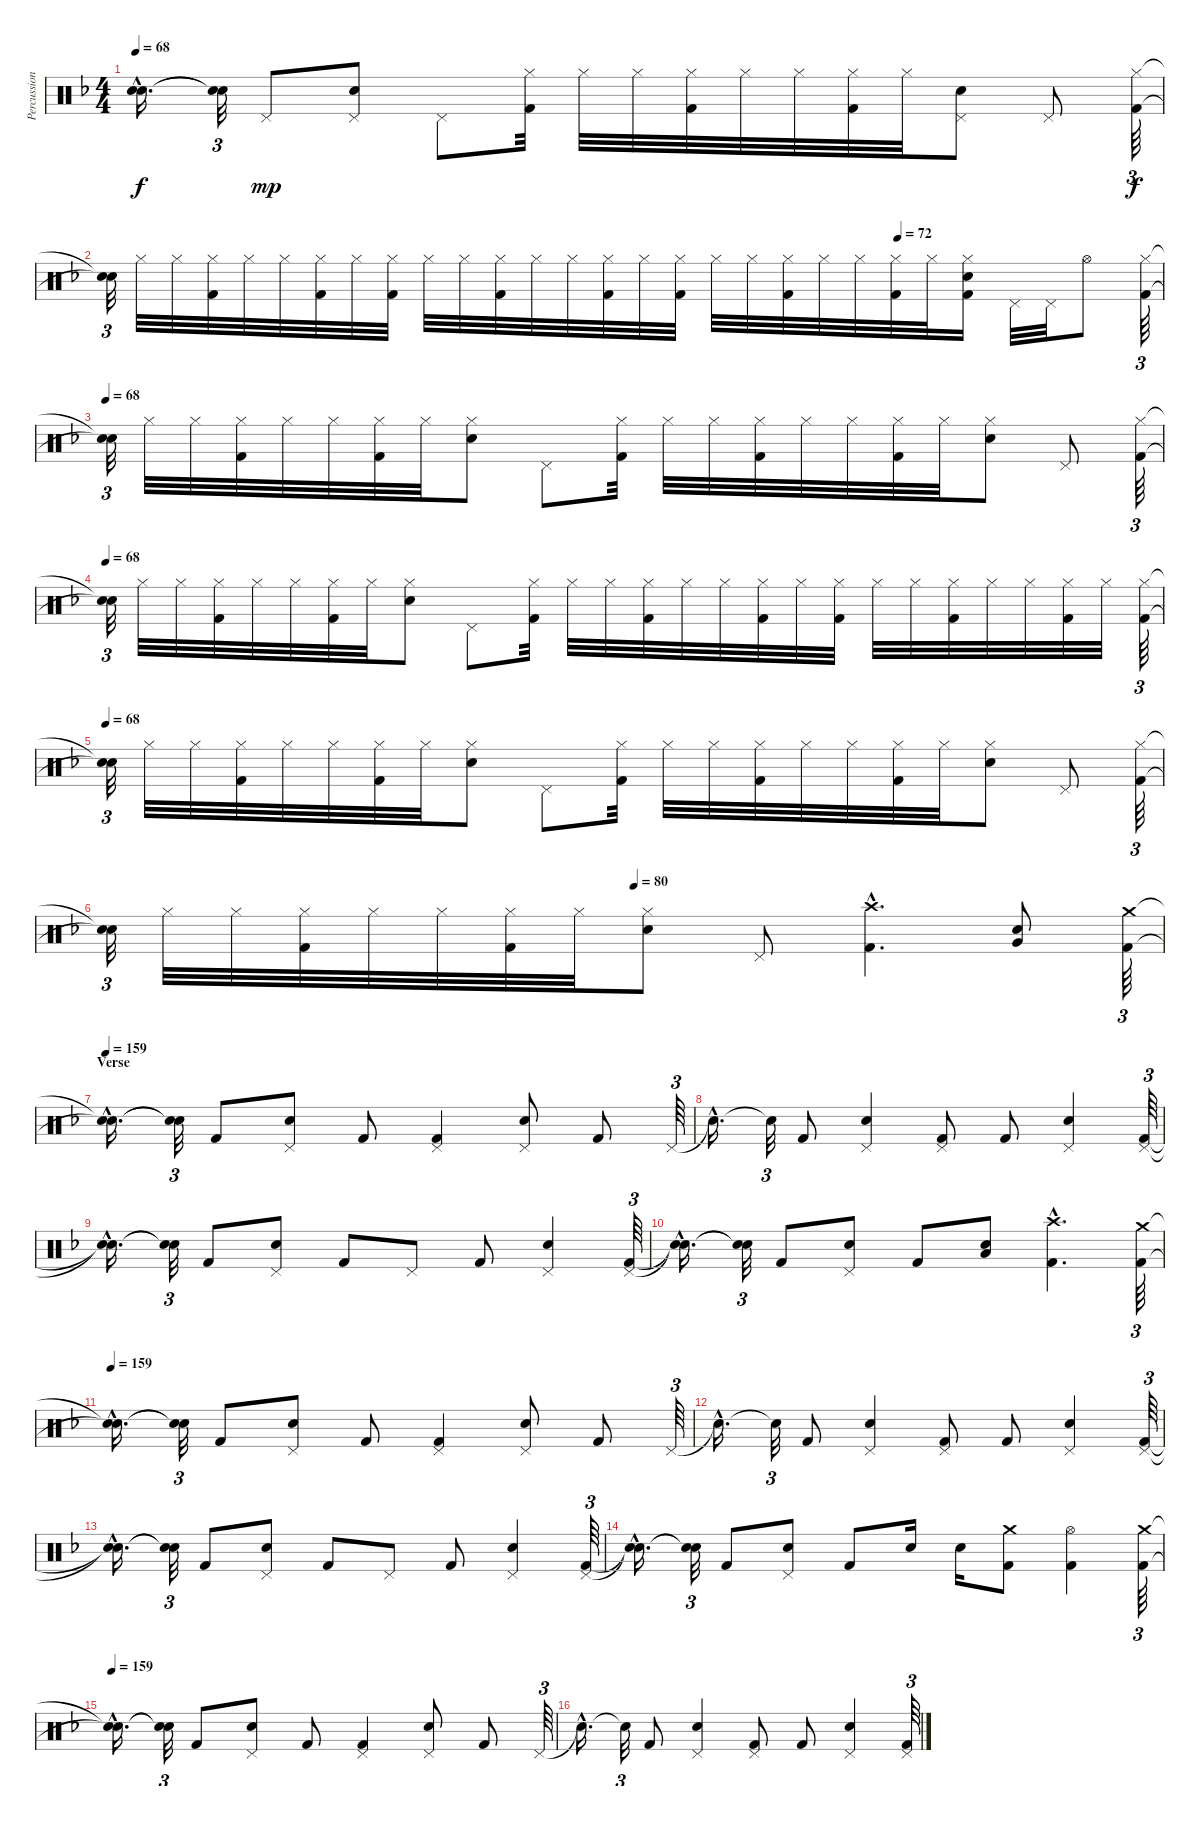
\track ("Percussion" "Percussion") {instrument percussion}
\staff {score}
\articulation defaults
\ts (4 4)
\tempo 68
\clef neutral
\ks f
("Snare (hit)"{hac t} "Snare (hit)"{hac t}).16{d dy f} ("Snare (hit)"{t} "Snare (hit)"{t}).32{tu (3 2)} "Pedal Hi-Hat (hit)".8{dy mp} ("Pedal Hi-Hat (hit)" "Electric Snare (hit)").8 "Pedal Hi-Hat (hit)".8 ("Hi-Hat (closed)" "Kick (hit) 2").32 "Hi-Hat (closed)".32 "Hi-Hat (closed)".32 ("Hi-Hat (closed)" "Kick (hit) 2").32 "Hi-Hat (closed)".32 "Hi-Hat (closed)".32 ("Hi-Hat (closed)" "Kick (hit) 2").32 "Hi-Hat (closed)".32 ("Pedal Hi-Hat (hit)" "Electric Snare (hit)").8 "Pedal Hi-Hat (hit)".8 ("Hi-Hat (closed)" "Kick (hit) 2").64{tu (3 2) dy f} |
\tempo (72 0.75)
("Snare (hit)"{t} "Snare (hit)"{t}).32{tu (3 2)} "Hi-Hat (closed)".32 "Hi-Hat (closed)".32 ("Hi-Hat (closed)" "Kick (hit) 2").32 "Hi-Hat (closed)".32 "Hi-Hat (closed)".32 ("Hi-Hat (closed)" "Kick (hit) 2").32 "Hi-Hat (closed)".32 ("Hi-Hat (closed)" "Kick (hit) 2").32 "Hi-Hat (closed)".32 "Hi-Hat (closed)".32 ("Hi-Hat (closed)" "Kick (hit) 2").32 "Hi-Hat (closed)".32 "Hi-Hat (closed)".32 ("Hi-Hat (closed)" "Kick (hit) 2").32 "Hi-Hat (closed)".32 ("Hi-Hat (closed)" "Kick (hit) 2").32 "Hi-Hat (closed)".32 "Hi-Hat (closed)".32 ("Hi-Hat (closed)" "Kick (hit) 2").32 "Hi-Hat (closed)".32 "Hi-Hat (closed)".32 ("Hi-Hat (closed)" "Kick (hit) 2").32 "Hi-Hat (closed)".32 ("Hi-Hat (closed)" "Electric Snare (hit)" "Kick (hit) 2").16 "Pedal Hi-Hat (hit)".32 "Pedal Hi-Hat (hit)".32 "Hi-Hat (open)".8 ("Hi-Hat (closed)" "Kick (hit) 2").64{tu (3 2)} |
\tempo 68
("Snare (hit)"{t} "Snare (hit)"{t}).32{tu (3 2)} "Hi-Hat (closed)".32 "Hi-Hat (closed)".32 ("Hi-Hat (closed)" "Kick (hit) 2").32 "Hi-Hat (closed)".32 "Hi-Hat (closed)".32 ("Hi-Hat (closed)" "Kick (hit) 2").32 "Hi-Hat (closed)".32 ("Hi-Hat (closed)" "Electric Snare (hit)").8 "Pedal Hi-Hat (hit)".8 ("Hi-Hat (closed)" "Kick (hit) 2").32 "Hi-Hat (closed)".32 "Hi-Hat (closed)".32 ("Hi-Hat (closed)" "Kick (hit) 2").32 "Hi-Hat (closed)".32 "Hi-Hat (closed)".32 ("Hi-Hat (closed)" "Kick (hit) 2").32 "Hi-Hat (closed)".32 ("Hi-Hat (closed)" "Electric Snare (hit)").8 "Pedal Hi-Hat (hit)".8 ("Hi-Hat (closed)" "Kick (hit) 2").64{tu (3 2)} |
\tempo 68
("Snare (hit)"{t} "Snare (hit)"{t}).32{tu (3 2)} "Hi-Hat (closed)".32 "Hi-Hat (closed)".32 ("Hi-Hat (closed)" "Kick (hit) 2").32 "Hi-Hat (closed)".32 "Hi-Hat (closed)".32 ("Hi-Hat (closed)" "Kick (hit) 2").32 "Hi-Hat (closed)".32 ("Hi-Hat (closed)" "Electric Snare (hit)").8 "Pedal Hi-Hat (hit)".8 ("Hi-Hat (closed)" "Kick (hit) 2").32 "Hi-Hat (closed)".32 "Hi-Hat (closed)".32 ("Hi-Hat (closed)" "Kick (hit) 2").32 "Hi-Hat (closed)".32 "Hi-Hat (closed)".32 ("Hi-Hat (closed)" "Kick (hit) 2").32 "Hi-Hat (closed)".32 ("Hi-Hat (closed)" "Kick (hit) 2").32 "Hi-Hat (closed)".32 "Hi-Hat (closed)".32 ("Hi-Hat (closed)" "Kick (hit) 2").32 "Hi-Hat (closed)".32 "Hi-Hat (closed)".32 ("Hi-Hat (closed)" "Kick (hit) 2").32 "Hi-Hat (closed)".32 ("Hi-Hat (closed)" "Kick (hit) 2").64{tu (3 2)} |
\tempo 68
("Snare (hit)"{t} "Snare (hit)"{t}).32{tu (3 2)} "Hi-Hat (closed)".32 "Hi-Hat (closed)".32 ("Hi-Hat (closed)" "Kick (hit) 2").32 "Hi-Hat (closed)".32 "Hi-Hat (closed)".32 ("Hi-Hat (closed)" "Kick (hit) 2").32 "Hi-Hat (closed)".32 ("Hi-Hat (closed)" "Electric Snare (hit)").8 "Pedal Hi-Hat (hit)".8 ("Hi-Hat (closed)" "Kick (hit) 2").32 "Hi-Hat (closed)".32 "Hi-Hat (closed)".32 ("Hi-Hat (closed)" "Kick (hit) 2").32 "Hi-Hat (closed)".32 "Hi-Hat (closed)".32 ("Hi-Hat (closed)" "Kick (hit) 2").32 "Hi-Hat (closed)".32 ("Hi-Hat (closed)" "Electric Snare (hit)").8 "Pedal Hi-Hat (hit)".8 ("Hi-Hat (closed)" "Kick (hit) 2").64{tu (3 2)} |
\tempo (80 0.5)
("Snare (hit)"{t} "Snare (hit)"{t}).32{tu (3 2)} "Hi-Hat (closed)".32 "Hi-Hat (closed)".32 ("Hi-Hat (closed)" "Kick (hit) 2").32 "Hi-Hat (closed)".32 "Hi-Hat (closed)".32 ("Hi-Hat (closed)" "Kick (hit) 2").32 "Hi-Hat (closed)".32 ("Hi-Hat (closed)" "Electric Snare (hit)").8 "Pedal Hi-Hat (hit)".8 ("Crash high (hit)"{hac} "Kick (hit) 2"{hac}).4{d} ("Very Low Tom (hit)" "Electric Snare (hit)").8 ("Crash medium (hit)" "Kick (hit) 2").64{tu (3 2)} |
\section ("" "Verse")
\tempo 159
("Snare (hit)"{hac t} "Snare (hit)"{hac t}).16{d} ("Snare (hit)"{t} "Snare (hit)"{t}).32{tu (3 2)} "Kick (hit) 2".8 ("Pedal Hi-Hat (hit)" "Electric Snare (hit)").8 "Kick (hit) 2".8 ("Pedal Hi-Hat (hit)" "Kick (hit) 2").4 ("Pedal Hi-Hat (hit)" "Electric Snare (hit)").8 "Kick (hit) 2".8 "Pedal Hi-Hat (hit)".64{tu (3 2)} |
"Snare (hit)"{hac t}.16{d} "Snare (hit)"{t}.32{tu (3 2)} "Kick (hit) 2".8 ("Pedal Hi-Hat (hit)" "Electric Snare (hit)").4 ("Pedal Hi-Hat (hit)" "Kick (hit) 2").8 "Kick (hit) 2".8 ("Pedal Hi-Hat (hit)" "Electric Snare (hit)").4 ("Pedal Hi-Hat (hit)" "Kick (hit) 2").64{tu (3 2)} |
("Snare (hit)"{hac t} "Snare (hit)"{hac t}).16{d} ("Snare (hit)"{t} "Snare (hit)"{t}).32{tu (3 2)} "Kick (hit) 2".8 ("Pedal Hi-Hat (hit)" "Electric Snare (hit)").8 "Kick (hit) 2".8 "Pedal Hi-Hat (hit)".8 "Kick (hit) 2".8 ("Pedal Hi-Hat (hit)" "Electric Snare (hit)").4 ("Pedal Hi-Hat (hit)" "Kick (hit) 2").64{tu (3 2)} |
("Snare (hit)"{hac t} "Snare (hit)"{hac t}).16{d} ("Snare (hit)"{t} "Snare (hit)"{t}).32{tu (3 2)} "Kick (hit) 2".8 ("Pedal Hi-Hat (hit)" "Electric Snare (hit)").8 "Kick (hit) 2".8 ("Low Tom (hit)" "Electric Snare (hit)").8 ("Crash high (hit)"{hac} "Kick (hit) 2"{hac}).4{d} ("Crash medium (hit)" "Kick (hit) 2").64{tu (3 2)} |
\tempo 159
("Snare (hit)"{hac t} "Snare (hit)"{hac t}).16{d} ("Snare (hit)"{t} "Snare (hit)"{t}).32{tu (3 2)} "Kick (hit) 2".8 ("Pedal Hi-Hat (hit)" "Electric Snare (hit)").8 "Kick (hit) 2".8 ("Pedal Hi-Hat (hit)" "Kick (hit) 2").4 ("Pedal Hi-Hat (hit)" "Electric Snare (hit)").8 "Kick (hit) 2".8 "Pedal Hi-Hat (hit)".64{tu (3 2)} |
"Snare (hit)"{hac t}.16{d} "Snare (hit)"{t}.32{tu (3 2)} "Kick (hit) 2".8 ("Pedal Hi-Hat (hit)" "Electric Snare (hit)").4 ("Pedal Hi-Hat (hit)" "Kick (hit) 2").8 "Kick (hit) 2".8 ("Pedal Hi-Hat (hit)" "Electric Snare (hit)").4 ("Pedal Hi-Hat (hit)" "Kick (hit) 2").64{tu (3 2)} |
("Snare (hit)"{hac t} "Snare (hit)"{hac t}).16{d} ("Snare (hit)"{t} "Snare (hit)"{t}).32{tu (3 2)} "Kick (hit) 2".8 ("Pedal Hi-Hat (hit)" "Electric Snare (hit)").8 "Kick (hit) 2".8 "Pedal Hi-Hat (hit)".8 "Kick (hit) 2".8 ("Pedal Hi-Hat (hit)" "Electric Snare (hit)").4 ("Pedal Hi-Hat (hit)" "Kick (hit) 2").64{tu (3 2)} |
("Snare (hit)"{hac t} "Snare (hit)"{hac t}).16{d} ("Snare (hit)"{t} "Snare (hit)"{t}).32{tu (3 2)} "Kick (hit) 2".8 ("Pedal Hi-Hat (hit)" "Electric Snare (hit)").8 "Kick (hit) 2".8 "Electric Snare (hit)".16 "Electric Snare (hit)".16 ("Crash medium (hit)" "Kick (hit) 2").8 ("Hi-Hat (open)" "Kick (hit) 2").4 ("Crash medium (hit)" "Kick (hit) 2").64{tu (3 2)} |
\tempo 159
("Snare (hit)"{hac t} "Snare (hit)"{hac t}).16{d} ("Snare (hit)"{t} "Snare (hit)"{t}).32{tu (3 2)} "Kick (hit) 2".8 ("Pedal Hi-Hat (hit)" "Electric Snare (hit)").8 "Kick (hit) 2".8 ("Pedal Hi-Hat (hit)" "Kick (hit) 2").4 ("Pedal Hi-Hat (hit)" "Electric Snare (hit)").8 "Kick (hit) 2".8 "Pedal Hi-Hat (hit)".64{tu (3 2)} |
"Snare (hit)"{hac t}.16{d} "Snare (hit)"{t}.32{tu (3 2)} "Kick (hit) 2".8 ("Pedal Hi-Hat (hit)" "Electric Snare (hit)").4 ("Pedal Hi-Hat (hit)" "Kick (hit) 2").8 "Kick (hit) 2".8 ("Pedal Hi-Hat (hit)" "Electric Snare (hit)").4 ("Pedal Hi-Hat (hit)" "Kick (hit) 2").64{tu (3 2)}
